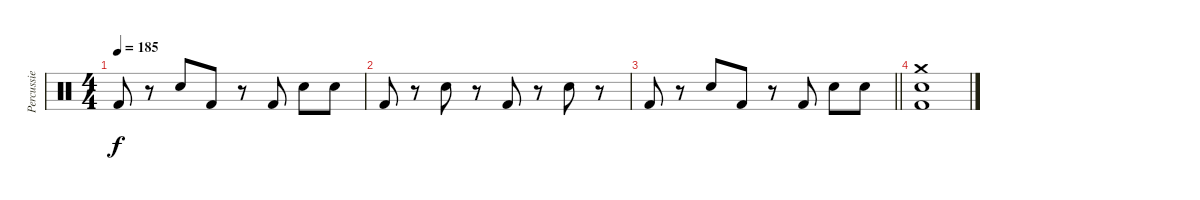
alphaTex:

\track ("Percussie" "Percussie") {instrument percussion}
\staff {score}
\articulation defaults
\ts (4 4)
\tempo 185
\clef neutral
\ks c "Kick (hit) 2".8{dy f}
r.8 "Snare (hit) 2".8 "Kick (hit) 2".8 r.8 "Kick (hit) 2".8 "Snare (hit) 2".8 "Snare (hit) 2".8 |
"Kick (hit) 2".8 r.8 "Snare (hit) 2".8 r.8 "Kick (hit) 2".8 r.8 "Snare (hit) 2".8 r.8 |
\barLineRight lightlight "Kick (hit) 2".8
r.8 "Snare (hit) 2".8 "Kick (hit) 2".8 r.8 "Kick (hit) 2".8 "Snare (hit) 2".8 "Snare (hit) 2".8 |
("Crash medium (hit)" "Snare (hit) 2" "Kick (hit) 2").1
